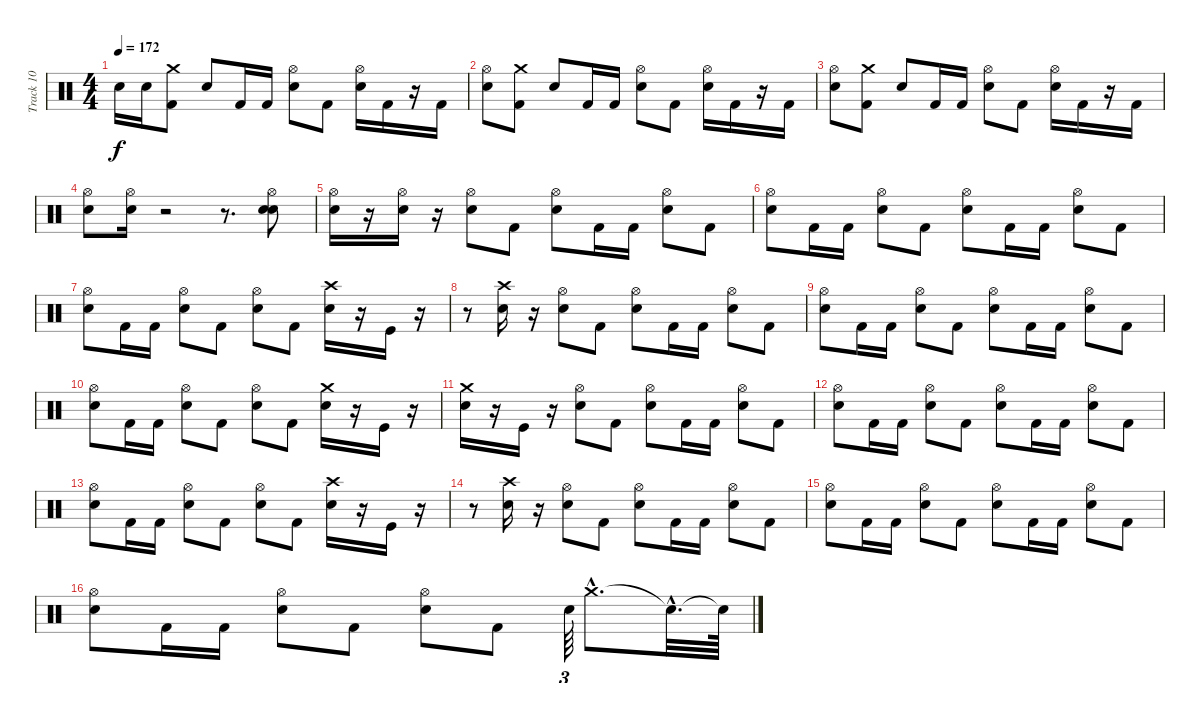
\track ("Track 10" "Track 10") {instrument percussion}
\staff {score}
\articulation defaults
\ts (4 4)
\tempo 172
\clef neutral
\ks c "Electric Snare (hit)".16{dy f} "Electric Snare (hit)".16
("Crash medium (hit)" "Kick (hit) 2").8 "Electric Snare (hit)".8 "Kick (hit) 2".16 "Kick (hit) 2".16 ("Hi-Hat (open)" "Electric Snare (hit)").8 "Kick (hit) 2".8 ("Hi-Hat (open)" "Electric Snare (hit)").16 "Kick (hit) 2".16 r.16 "Kick (hit) 2".16 |
("Hi-Hat (open)" "Electric Snare (hit)").8 ("Crash medium (hit)" "Kick (hit) 2").8 "Electric Snare (hit)".8 "Kick (hit) 2".16 "Kick (hit) 2".16 ("Hi-Hat (open)" "Electric Snare (hit)").8 "Kick (hit) 2".8 ("Hi-Hat (open)" "Electric Snare (hit)").16 "Kick (hit) 2".16 r.16 "Kick (hit) 2".16 |
("Hi-Hat (open)" "Electric Snare (hit)").8 ("Crash medium (hit)" "Kick (hit) 2").8 "Electric Snare (hit)".8 "Kick (hit) 2".16 "Kick (hit) 2".16 ("Hi-Hat (open)" "Electric Snare (hit)").8 "Kick (hit) 2".8 ("Hi-Hat (open)" "Electric Snare (hit)").16 "Kick (hit) 2".16 r.16 "Kick (hit) 2".16 |
("Hi-Hat (open)" "Electric Snare (hit)").8 ("Electric Snare (hit)" "Hi-Hat (open)").16 r.2 r.8{d} ("Electric Snare (hit)" "Hi-Hat (open)" "Electric Snare (hit)").8 |
("Hi-Hat (open)" "Electric Snare (hit)").16 r.16 ("Hi-Hat (open)" "Electric Snare (hit)").16 r.16 ("Hi-Hat (open)" "Electric Snare (hit)").8 "Kick (hit) 2".8 ("Hi-Hat (open)" "Electric Snare (hit)").8 "Kick (hit) 2".16 "Kick (hit) 2".16 ("Hi-Hat (open)" "Electric Snare (hit)").8 "Kick (hit) 2".8 |
("Hi-Hat (open)" "Electric Snare (hit)").8 "Kick (hit) 2".16 "Kick (hit) 2".16 ("Hi-Hat (open)" "Electric Snare (hit)").8 "Kick (hit) 2".8 ("Hi-Hat (open)" "Electric Snare (hit)").8 "Kick (hit) 2".16 "Kick (hit) 2".16 ("Hi-Hat (open)" "Electric Snare (hit)").8 "Kick (hit) 2".8 |
("Hi-Hat (open)" "Electric Snare (hit)").8 "Kick (hit) 2".16 "Kick (hit) 2".16 ("Hi-Hat (open)" "Electric Snare (hit)").8 "Kick (hit) 2".8 ("Hi-Hat (open)" "Electric Snare (hit)").8 "Kick (hit) 2".8 ("Crash high (hit)" "Electric Snare (hit)").16 r.16 "Kick (hit)".16 r.16 |
r.8 ("Crash high (hit)" "Electric Snare (hit)").16 r.16 ("Hi-Hat (open)" "Electric Snare (hit)").8 "Kick (hit) 2".8 ("Hi-Hat (open)" "Electric Snare (hit)").8 "Kick (hit) 2".16 "Kick (hit) 2".16 ("Hi-Hat (open)" "Electric Snare (hit)").8 "Kick (hit) 2".8 |
("Hi-Hat (open)" "Electric Snare (hit)").8 "Kick (hit) 2".16 "Kick (hit) 2".16 ("Hi-Hat (open)" "Electric Snare (hit)").8 "Kick (hit) 2".8 ("Hi-Hat (open)" "Electric Snare (hit)").8 "Kick (hit) 2".16 "Kick (hit) 2".16 ("Hi-Hat (open)" "Electric Snare (hit)").8 "Kick (hit) 2".8 |
("Hi-Hat (open)" "Electric Snare (hit)").8 "Kick (hit) 2".16 "Kick (hit) 2".16 ("Hi-Hat (open)" "Electric Snare (hit)").8 "Kick (hit) 2".8 ("Hi-Hat (open)" "Electric Snare (hit)").8 "Kick (hit) 2".8 ("Crash medium (hit)" "Electric Snare (hit)").16 r.16 "Kick (hit)".16 r.16 |
("Crash medium (hit)" "Electric Snare (hit)").16 r.16 "Kick (hit)".16 r.16 ("Hi-Hat (open)" "Electric Snare (hit)").8 "Kick (hit) 2".8 ("Hi-Hat (open)" "Electric Snare (hit)").8 "Kick (hit) 2".16 "Kick (hit) 2".16 ("Hi-Hat (open)" "Electric Snare (hit)").8 "Kick (hit) 2".8 |
("Hi-Hat (open)" "Electric Snare (hit)").8 "Kick (hit) 2".16 "Kick (hit) 2".16 ("Hi-Hat (open)" "Electric Snare (hit)").8 "Kick (hit) 2".8 ("Hi-Hat (open)" "Electric Snare (hit)").8 "Kick (hit) 2".16 "Kick (hit) 2".16 ("Hi-Hat (open)" "Electric Snare (hit)").8 "Kick (hit) 2".8 |
("Hi-Hat (open)" "Electric Snare (hit)").8 "Kick (hit) 2".16 "Kick (hit) 2".16 ("Hi-Hat (open)" "Electric Snare (hit)").8 "Kick (hit) 2".8 ("Hi-Hat (open)" "Electric Snare (hit)").8 "Kick (hit) 2".8 ("Crash high (hit)" "Electric Snare (hit)").16 r.16 "Kick (hit)".16 r.16 |
r.8 ("Crash high (hit)" "Electric Snare (hit)").16 r.16 ("Hi-Hat (open)" "Electric Snare (hit)").8 "Kick (hit) 2".8 ("Hi-Hat (open)" "Electric Snare (hit)").8 "Kick (hit) 2".16 "Kick (hit) 2".16 ("Hi-Hat (open)" "Electric Snare (hit)").8 "Kick (hit) 2".8 |
("Hi-Hat (open)" "Electric Snare (hit)").8 "Kick (hit) 2".16 "Kick (hit) 2".16 ("Hi-Hat (open)" "Electric Snare (hit)").8 "Kick (hit) 2".8 ("Hi-Hat (open)" "Electric Snare (hit)").8 "Kick (hit) 2".16 "Kick (hit) 2".16 ("Hi-Hat (open)" "Electric Snare (hit)").8 "Kick (hit) 2".8 |
("Hi-Hat (open)" "Electric Snare (hit)").8 "Kick (hit) 2".16 "Kick (hit) 2".16 ("Hi-Hat (open)" "Electric Snare (hit)").8 "Kick (hit) 2".8 ("Hi-Hat (open)" "Electric Snare (hit)").8 "Kick (hit) 2".8 "Electric Snare (hit)".64{tu (3 2)} "Crash medium (hit)"{hac}.8{d} "Snare (hit)"{hac t}.32{d} "Snare (hit)"{t}.64
